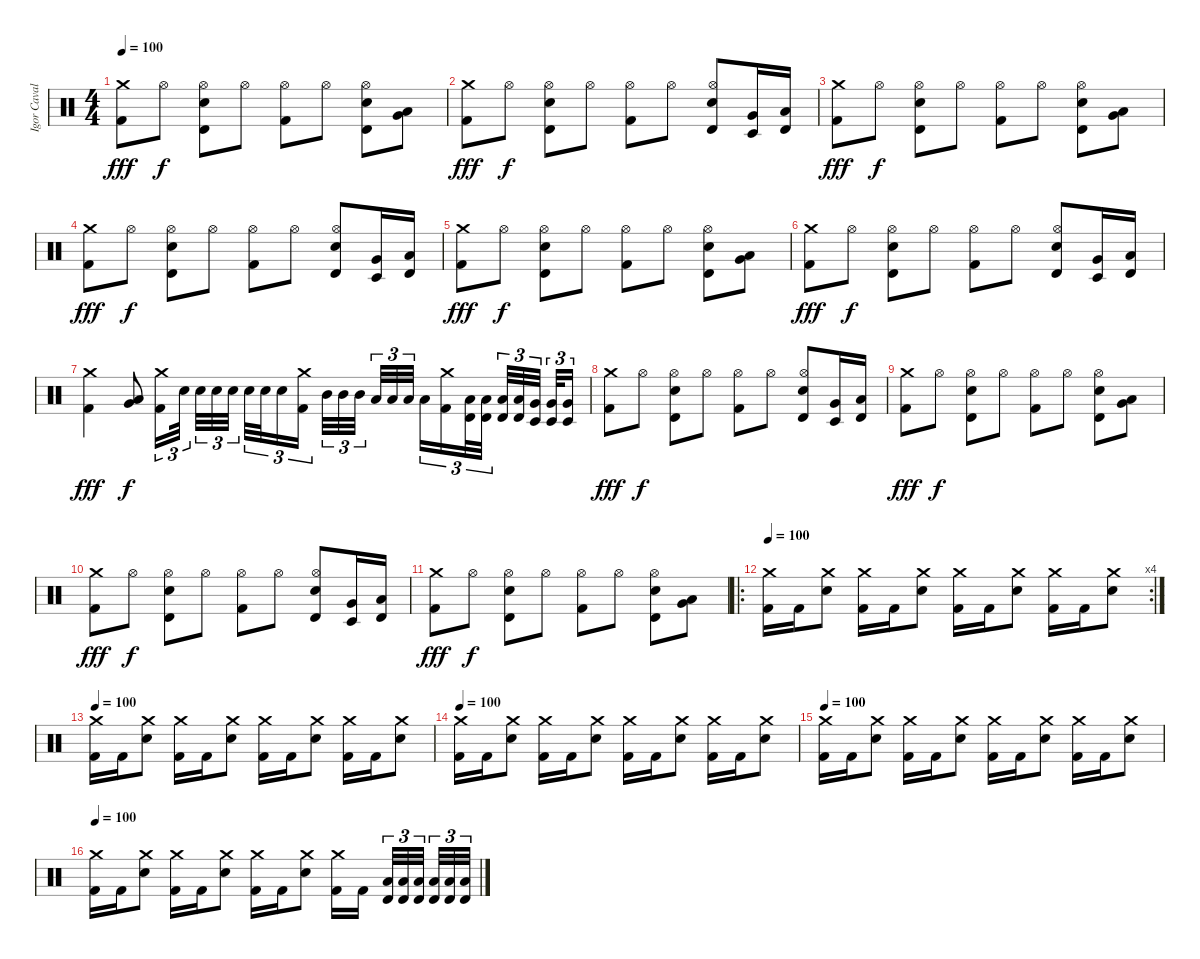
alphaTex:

\track ("Igor Cavalera" "Igor Caval") {instrument percussion}
\staff {score}
\articulation defaults
\ts (4 4)
\tempo 100
\clef neutral
\ks c
("Crash medium (hit)" "Kick (hit) 2").8{dy fff} "Hi-Hat (open)".8{dy f} ("Timbale high (hit)" "Electric Snare (hit)" "Hi-Hat (open)").8 "Hi-Hat (open)".8 ("Kick (hit) 2" "Hi-Hat (open)").8 "Hi-Hat (open)".8 ("Timbale high (hit)" "Electric Snare (hit)" "Hi-Hat (open)").8 ("Low Floor Tom (hit)" "Very Low Tom (hit)").8 |
("Crash medium (hit)" "Kick (hit) 2").8{dy fff} "Hi-Hat (open)".8{dy f} ("Timbale high (hit)" "Electric Snare (hit)" "Hi-Hat (open)").8 "Hi-Hat (open)".8 ("Kick (hit) 2" "Hi-Hat (open)").8 "Hi-Hat (open)".8 ("Timbale high (hit)" "Electric Snare (hit)" "Hi-Hat (open)").8 ("Timbale low (hit)" "Very Low Tom (hit)").16 ("Timbale high (hit)" "Low Tom (hit)").16 |
("Crash medium (hit)" "Kick (hit) 2").8{dy fff} "Hi-Hat (open)".8{dy f} ("Timbale high (hit)" "Electric Snare (hit)" "Hi-Hat (open)").8 "Hi-Hat (open)".8 ("Kick (hit) 2" "Hi-Hat (open)").8 "Hi-Hat (open)".8 ("Timbale high (hit)" "Electric Snare (hit)" "Hi-Hat (open)").8 ("Low Floor Tom (hit)" "Very Low Tom (hit)").8 |
("Crash medium (hit)" "Kick (hit) 2").8{dy fff} "Hi-Hat (open)".8{dy f} ("Timbale high (hit)" "Electric Snare (hit)" "Hi-Hat (open)").8 "Hi-Hat (open)".8 ("Kick (hit) 2" "Hi-Hat (open)").8 "Hi-Hat (open)".8 ("Timbale high (hit)" "Electric Snare (hit)" "Hi-Hat (open)").8 ("Timbale low (hit)" "Very Low Tom (hit)").16 ("Timbale high (hit)" "Low Tom (hit)").16 |
("Crash medium (hit)" "Kick (hit) 2").8{dy fff} "Hi-Hat (open)".8{dy f} ("Timbale high (hit)" "Electric Snare (hit)" "Hi-Hat (open)").8 "Hi-Hat (open)".8 ("Kick (hit) 2" "Hi-Hat (open)").8 "Hi-Hat (open)".8 ("Timbale high (hit)" "Electric Snare (hit)" "Hi-Hat (open)").8 ("Low Floor Tom (hit)" "Very Low Tom (hit)").8 |
("Crash medium (hit)" "Kick (hit) 2").8{dy fff} "Hi-Hat (open)".8{dy f} ("Timbale high (hit)" "Electric Snare (hit)" "Hi-Hat (open)").8 "Hi-Hat (open)".8 ("Kick (hit) 2" "Hi-Hat (open)").8 "Hi-Hat (open)".8 ("Timbale high (hit)" "Electric Snare (hit)" "Hi-Hat (open)").8 ("Timbale low (hit)" "Very Low Tom (hit)").16 ("Timbale high (hit)" "Low Tom (hit)").16 |
("Crash medium (hit)" "Kick (hit) 2").4{dy fff} ("Very Low Tom (hit)" "Low Floor Tom (hit)").8{dy f} ("Kick (hit) 2" "Crash medium (hit)").16{tu (3 2)} "Electric Snare (hit)".32{tu (3 2) beam splitsecondary} "Electric Snare (hit)".32{tu (3 2)} "Electric Snare (hit)".32{tu (3 2)} "Electric Snare (hit)".32{tu (3 2)} "Electric Snare (hit)".32{tu (3 2)} "Electric Snare (hit)".32{tu (3 2)} "Electric Snare (hit)".16{tu (3 2)} ("Crash medium (hit)" "Kick (hit) 2").16{tu (3 2) beam splitsecondary} "Mid Tom (hit)".32{tu (3 2)} "Mid Tom (hit)".32{tu (3 2)} "Mid Tom (hit)".32{tu (3 2) beam splitsecondary} "Low Tom (hit)".32{tu (3 2)} "Low Tom (hit)".32{tu (3 2)} "Low Tom (hit)".32{tu (3 2)} "Low Tom (hit)".16{tu (3 2)} ("Crash medium (hit)" "Kick (hit) 2").16{tu (3 2)} ("Low Tom (hit)" "Timbale high (hit)").32{tu (3 2)} ("Low Tom (hit)" "Timbale high (hit)").32{tu (3 2) beam splitsecondary} ("Low Tom (hit)" "Timbale high (hit)").32{tu (3 2)} ("Low Tom (hit)" "Timbale high (hit)").32{tu (3 2)} ("Very Low Tom (hit)" "Timbale low (hit)").32{tu (3 2) beam splitsecondary} ("Very Low Tom (hit)" "Timbale low (hit)").32{tu (3 2)} ("Very Low Tom (hit)" "Timbale low (hit)").16{tu (3 2)} |
("Crash medium (hit)" "Kick (hit) 2").8{dy fff} "Hi-Hat (open)".8{dy f} ("Timbale high (hit)" "Electric Snare (hit)" "Hi-Hat (open)").8 "Hi-Hat (open)".8 ("Kick (hit) 2" "Hi-Hat (open)").8 "Hi-Hat (open)".8 ("Timbale high (hit)" "Electric Snare (hit)" "Hi-Hat (open)").8 ("Timbale low (hit)" "Very Low Tom (hit)").16 ("Timbale high (hit)" "Low Tom (hit)").16 |
("Crash medium (hit)" "Kick (hit) 2").8{dy fff} "Hi-Hat (open)".8{dy f} ("Timbale high (hit)" "Electric Snare (hit)" "Hi-Hat (open)").8 "Hi-Hat (open)".8 ("Kick (hit) 2" "Hi-Hat (open)").8 "Hi-Hat (open)".8 ("Timbale high (hit)" "Electric Snare (hit)" "Hi-Hat (open)").8 ("Low Floor Tom (hit)" "Very Low Tom (hit)").8 |
("Crash medium (hit)" "Kick (hit) 2").8{dy fff} "Hi-Hat (open)".8{dy f} ("Timbale high (hit)" "Electric Snare (hit)" "Hi-Hat (open)").8 "Hi-Hat (open)".8 ("Kick (hit) 2" "Hi-Hat (open)").8 "Hi-Hat (open)".8 ("Timbale high (hit)" "Electric Snare (hit)" "Hi-Hat (open)").8 ("Timbale low (hit)" "Very Low Tom (hit)").16 ("Timbale high (hit)" "Low Tom (hit)").16 |
("Crash medium (hit)" "Kick (hit) 2").8{dy fff} "Hi-Hat (open)".8{dy f} ("Timbale high (hit)" "Electric Snare (hit)" "Hi-Hat (open)").8 "Hi-Hat (open)".8 ("Kick (hit) 2" "Hi-Hat (open)").8 "Hi-Hat (open)".8 ("Timbale high (hit)" "Electric Snare (hit)" "Hi-Hat (open)").8 ("Low Floor Tom (hit)" "Very Low Tom (hit)").8 |
\ro
\rc 4
\tempo 100
("Crash medium (hit)" "Kick (hit) 2").16 "Kick (hit) 2".16 ("Crash medium (hit)" "Electric Snare (hit)").8 ("Crash medium (hit)" "Kick (hit) 2").16 "Kick (hit) 2".16 ("Crash medium (hit)" "Electric Snare (hit)").8 ("Crash medium (hit)" "Kick (hit) 2").16 "Kick (hit) 2".16 ("Crash medium (hit)" "Electric Snare (hit)").8 ("Crash medium (hit)" "Kick (hit) 2").16 "Kick (hit) 2".16 ("Crash medium (hit)" "Electric Snare (hit)").8 |
\tempo 100
("Crash medium (hit)" "Kick (hit) 2").16 "Kick (hit) 2".16 ("Crash medium (hit)" "Electric Snare (hit)").8 ("Crash medium (hit)" "Kick (hit) 2").16 "Kick (hit) 2".16 ("Crash medium (hit)" "Electric Snare (hit)").8 ("Crash medium (hit)" "Kick (hit) 2").16 "Kick (hit) 2".16 ("Crash medium (hit)" "Electric Snare (hit)").8 ("Crash medium (hit)" "Kick (hit) 2").16 "Kick (hit) 2".16 ("Crash medium (hit)" "Electric Snare (hit)").8 |
\tempo 100
("Crash medium (hit)" "Kick (hit) 2").16 "Kick (hit) 2".16 ("Crash medium (hit)" "Electric Snare (hit)").8 ("Crash medium (hit)" "Kick (hit) 2").16 "Kick (hit) 2".16 ("Crash medium (hit)" "Electric Snare (hit)").8 ("Crash medium (hit)" "Kick (hit) 2").16 "Kick (hit) 2".16 ("Crash medium (hit)" "Electric Snare (hit)").8 ("Crash medium (hit)" "Kick (hit) 2").16 "Kick (hit) 2".16 ("Crash medium (hit)" "Electric Snare (hit)").8 |
\tempo 100
("Crash medium (hit)" "Kick (hit) 2").16 "Kick (hit) 2".16 ("Crash medium (hit)" "Electric Snare (hit)").8 ("Crash medium (hit)" "Kick (hit) 2").16 "Kick (hit) 2".16 ("Crash medium (hit)" "Electric Snare (hit)").8 ("Crash medium (hit)" "Kick (hit) 2").16 "Kick (hit) 2".16 ("Crash medium (hit)" "Electric Snare (hit)").8 ("Crash medium (hit)" "Kick (hit) 2").16 "Kick (hit) 2".16 ("Crash medium (hit)" "Electric Snare (hit)").8 |
\tempo 100
("Crash medium (hit)" "Kick (hit) 2").16 "Kick (hit) 2".16 ("Crash medium (hit)" "Electric Snare (hit)").8 ("Crash medium (hit)" "Kick (hit) 2").16 "Kick (hit) 2".16 ("Crash medium (hit)" "Electric Snare (hit)").8 ("Crash medium (hit)" "Kick (hit) 2").16 "Kick (hit) 2".16 ("Crash medium (hit)" "Electric Snare (hit)").8 ("Crash medium (hit)" "Kick (hit) 2").16 "Kick (hit) 2".16{beam splitsecondary} ("Timbale high (hit)" "Low Tom (hit)").32{tu (3 2)} ("Timbale high (hit)" "Low Tom (hit)").32{tu (3 2)} ("Timbale high (hit)" "Low Tom (hit)").32{tu (3 2) beam splitsecondary} ("Timbale high (hit)" "Low Tom (hit)").32{tu (3 2)} ("Timbale high (hit)" "Low Tom (hit)").32{tu (3 2)} ("Timbale high (hit)" "Low Tom (hit)").32{tu (3 2)}
